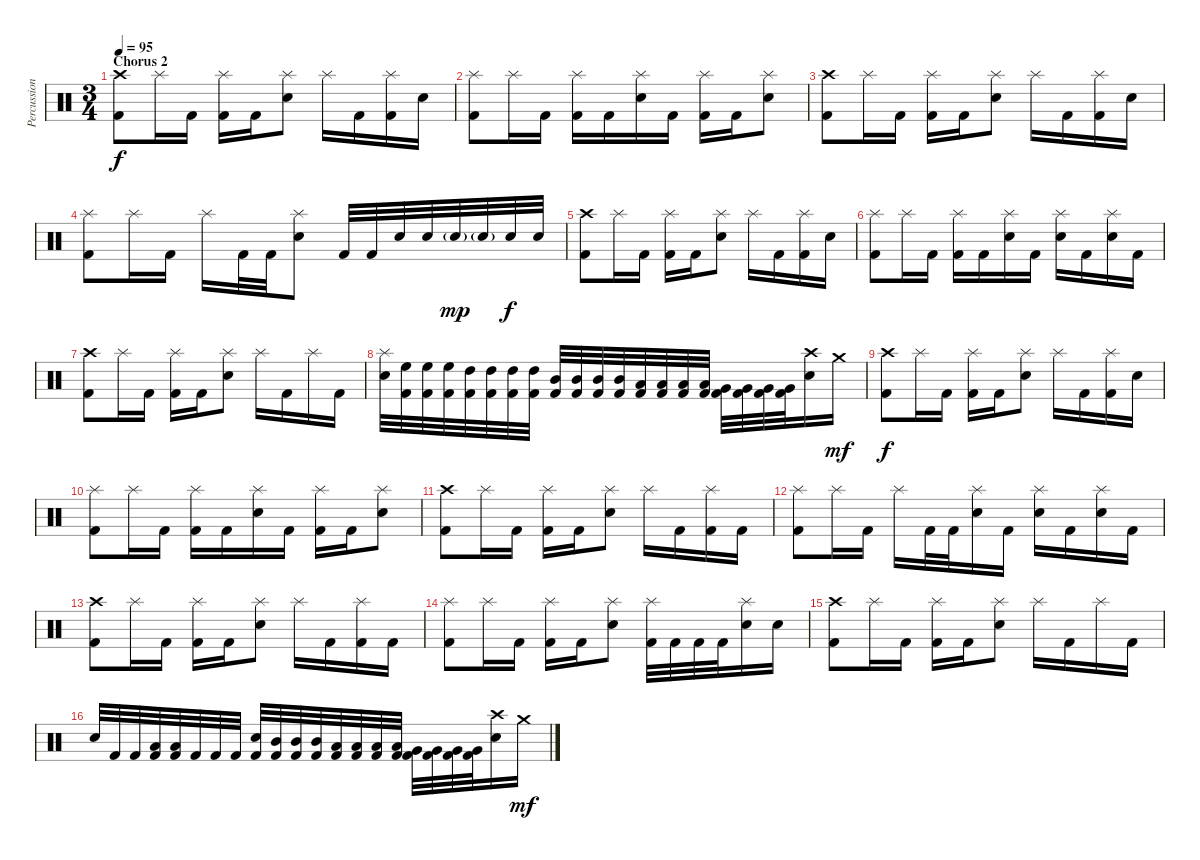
\track ("Percussion Mike" "Percussion") {instrument percussion}
\staff {score}
\articulation defaults
\ts (3 4)
\section ("" "Chorus 2")
\tempo 95
\clef neutral
\ks c
("Crash high (hit)" "Kick (hit) 2").8{dy f} "Splash (hit)".16 "Kick (hit) 2".16 ("Splash (hit)" "Kick (hit) 2").16 "Kick (hit) 2".16 ("Splash (hit)" "Snare (hit) 2").8 "Splash (hit)".16 "Kick (hit) 2".16 ("Splash (hit)" "Kick (hit) 2").16 "Snare (hit) 2".16 |
("Splash (hit)" "Kick (hit) 2").8 "Splash (hit)".16 "Kick (hit) 2".16 ("Splash (hit)" "Kick (hit) 2").16 "Kick (hit) 2".16 ("Splash (hit)" "Snare (hit) 2").16 "Kick (hit) 2".16 ("Splash (hit)" "Kick (hit) 2").16 "Kick (hit) 2".16 ("Splash (hit)" "Snare (hit) 2").8 |
("Crash high (hit)" "Kick (hit) 2").8 "Splash (hit)".16 "Kick (hit) 2".16 ("Splash (hit)" "Kick (hit) 2").16 "Kick (hit) 2".16 ("Splash (hit)" "Snare (hit) 2").8 "Splash (hit)".16 "Kick (hit) 2".16 ("Splash (hit)" "Kick (hit) 2").16 "Snare (hit) 2".16 |
("Splash (hit)" "Kick (hit) 2").8 "Splash (hit)".16 "Kick (hit) 2".16 "Splash (hit)".16 "Kick (hit) 2".32 "Kick (hit) 2".32 ("Splash (hit)" "Snare (hit) 2").8 "Kick (hit) 2".32 "Kick (hit) 2".32 "Snare (hit) 2".32 "Snare (hit) 2".32 "Snare (hit) 2"{g}.32{dy mp} "Snare (hit) 2"{g}.32 "Snare (hit) 2".32{dy f} "Snare (hit) 2".32 |
("Crash high (hit)" "Kick (hit) 2").8 "Splash (hit)".16 "Kick (hit) 2".16 ("Splash (hit)" "Kick (hit) 2").16 "Kick (hit) 2".16 ("Splash (hit)" "Snare (hit) 2").8 "Splash (hit)".16 "Kick (hit) 2".16 ("Splash (hit)" "Kick (hit) 2").16 "Snare (hit) 2".16 |
("Splash (hit)" "Kick (hit) 2").8 "Splash (hit)".16 "Kick (hit) 2".16 ("Splash (hit)" "Kick (hit) 2").16 "Kick (hit) 2".16 ("Splash (hit)" "Snare (hit) 2").16 "Kick (hit) 2".16 ("Splash (hit)" "Snare (hit) 2").16 "Kick (hit) 2".16 ("Splash (hit)" "Snare (hit) 2").16 "Kick (hit) 2".16 |
("Crash high (hit)" "Kick (hit) 2").8 "Splash (hit)".16 "Kick (hit) 2".16 ("Splash (hit)" "Kick (hit) 2").16 "Kick (hit) 2".16 ("Splash (hit)" "Snare (hit) 2").8 "Splash (hit)".16 "Kick (hit) 2".16 "Splash (hit)".16 "Kick (hit) 2".16 |
("Splash (hit)" "Snare (hit) 2").32 ("High Floor Tom (hit)" "Kick (hit) 2").32 ("High Floor Tom (hit)" "Kick (hit) 2").32 ("High Floor Tom (hit)" "Kick (hit) 2").32 ("High Tom (hit)" "Kick (hit) 2").32 ("High Tom (hit)" "Kick (hit) 2").32 ("High Tom (hit)" "Kick (hit) 2").32 ("High Tom (hit)" "Kick (hit) 2").32 ("Mid Tom (hit)" "Kick (hit) 2").32 ("Mid Tom (hit)" "Kick (hit) 2").32 ("Mid Tom (hit)" "Kick (hit) 2").32 ("Mid Tom (hit)" "Kick (hit) 2").32 ("Low Tom (hit)" "Kick (hit) 2").32 ("Low Tom (hit)" "Kick (hit) 2").32 ("Low Tom (hit)" "Kick (hit) 2").32 ("Low Tom (hit)" "Kick (hit) 2").32 ("Very Low Tom (hit)" "Kick (hit) 2").32 ("Very Low Tom (hit)" "Kick (hit) 2").32 ("Very Low Tom (hit)" "Kick (hit) 2").32 ("Very Low Tom (hit)" "Kick (hit) 2").32 ("Crash high (hit)" "Snare (hit) 2").16 "Crash medium (hit)".16{dy mf} |
("Crash high (hit)" "Kick (hit) 2").8{dy f} "Splash (hit)".16 "Kick (hit) 2".16 ("Splash (hit)" "Kick (hit) 2").16 "Kick (hit) 2".16 ("Splash (hit)" "Snare (hit) 2").8 "Splash (hit)".16 "Kick (hit) 2".16 ("Splash (hit)" "Kick (hit) 2").16 "Snare (hit) 2".16 |
("Splash (hit)" "Kick (hit) 2").8 "Splash (hit)".16 "Kick (hit) 2".16 ("Splash (hit)" "Kick (hit) 2").16 "Kick (hit) 2".16 ("Splash (hit)" "Snare (hit) 2").16 "Kick (hit) 2".16 ("Splash (hit)" "Kick (hit) 2").16 "Kick (hit) 2".16 ("Splash (hit)" "Snare (hit) 2").8 |
("Crash high (hit)" "Kick (hit) 2").8 "Splash (hit)".16 "Kick (hit) 2".16 ("Splash (hit)" "Kick (hit) 2").16 "Kick (hit) 2".16 ("Splash (hit)" "Snare (hit) 2").8 "Splash (hit)".16 "Kick (hit) 2".16 ("Splash (hit)" "Kick (hit) 2").16 "Kick (hit) 2".16 |
("Splash (hit)" "Kick (hit) 2").8 "Splash (hit)".16 "Kick (hit) 2".16 "Splash (hit)".16 "Kick (hit) 2".32 "Kick (hit) 2".32 ("Splash (hit)" "Snare (hit) 2").16 "Kick (hit) 2".16 ("Splash (hit)" "Snare (hit) 2").16 "Kick (hit) 2".16 ("Splash (hit)" "Snare (hit) 2").16 "Kick (hit) 2".16 |
("Crash high (hit)" "Kick (hit) 2").8 "Splash (hit)".16 "Kick (hit) 2".16 ("Splash (hit)" "Kick (hit) 2").16 "Kick (hit) 2".16 ("Splash (hit)" "Snare (hit) 2").8 "Splash (hit)".16 "Kick (hit) 2".16 ("Splash (hit)" "Kick (hit) 2").16 "Kick (hit) 2".16 |
("Splash (hit)" "Kick (hit) 2").8 "Splash (hit)".16 "Kick (hit) 2".16 ("Splash (hit)" "Kick (hit) 2").16 "Kick (hit) 2".16 ("Splash (hit)" "Snare (hit) 2").8 ("Splash (hit)" "Kick (hit) 2").32 "Kick (hit) 2".32 "Kick (hit) 2".32 "Kick (hit) 2".32 ("Splash (hit)" "Snare (hit) 2").16 "Snare (hit) 2".16 |
("Crash high (hit)" "Kick (hit) 2").8 "Splash (hit)".16 "Kick (hit) 2".16 ("Splash (hit)" "Kick (hit) 2").16 "Kick (hit) 2".16 ("Splash (hit)" "Snare (hit) 2").8 "Splash (hit)".16 "Kick (hit) 2".16 "Splash (hit)".16 "Kick (hit) 2".16 |
"Snare (hit) 2".32 "Kick (hit) 2".32 "Kick (hit) 2".32 ("Low Tom (hit)" "Kick (hit) 2").32 ("Low Tom (hit)" "Kick (hit) 2").32 "Kick (hit) 2".32 "Kick (hit) 2".32 "Kick (hit) 2".32 ("Snare (hit) 2" "Kick (hit) 2").32 ("Mid Tom (hit)" "Kick (hit) 2").32 ("Mid Tom (hit)" "Kick (hit) 2").32 ("Mid Tom (hit)" "Kick (hit) 2").32 ("Low Tom (hit)" "Kick (hit) 2").32 ("Low Tom (hit)" "Kick (hit) 2").32 ("Low Tom (hit)" "Kick (hit) 2").32 ("Low Tom (hit)" "Kick (hit) 2").32 ("Very Low Tom (hit)" "Kick (hit) 2").32 ("Very Low Tom (hit)" "Kick (hit) 2").32 ("Very Low Tom (hit)" "Kick (hit) 2").32 ("Very Low Tom (hit)" "Kick (hit) 2").32 ("Crash high (hit)" "Snare (hit) 2").16 "Crash medium (hit)".16{dy mf}
